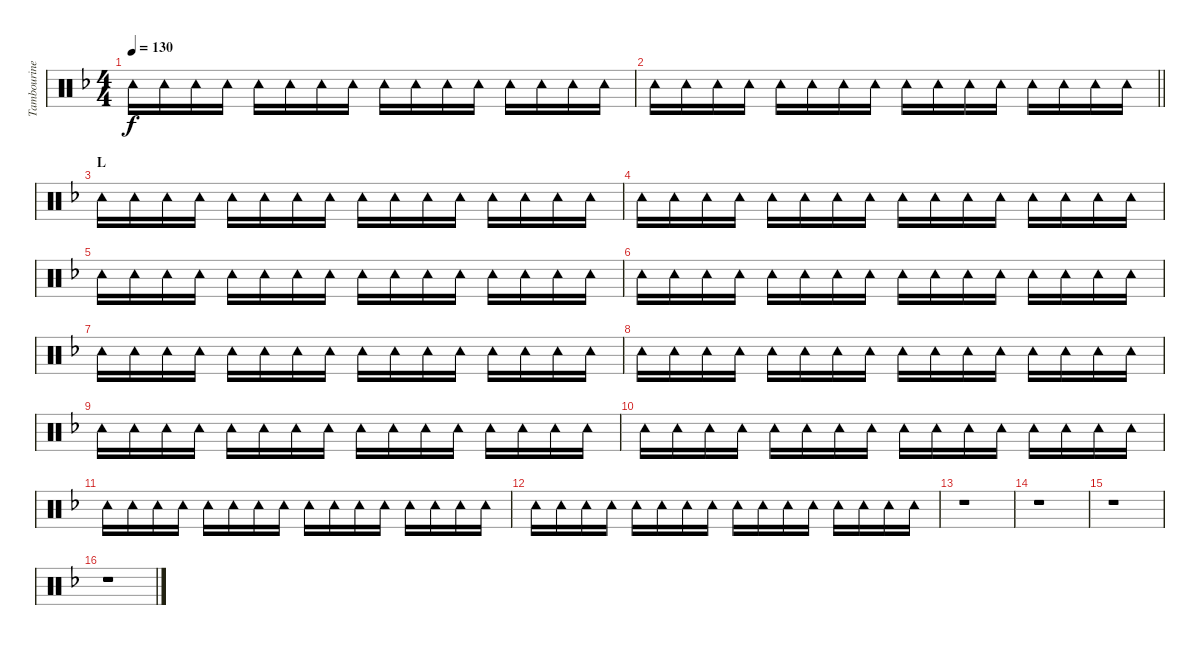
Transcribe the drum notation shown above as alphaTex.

\track ("Tambourine" "Tambourine") {instrument percussion}
\staff {score}
\articulation defaults
\ts (4 4)
\tempo 130
\clef neutral
\ks f "Tambourine (hit)".16{dy f} "Tambourine (hit)".16 "Tambourine (hit)".16 "Tambourine (hit)".16 "Tambourine (hit)".16 "Tambourine (hit)".16 "Tambourine (hit)".16 "Tambourine (hit)".16 "Tambourine (hit)".16 "Tambourine (hit)".16 "Tambourine (hit)".16 "Tambourine (hit)".16 "Tambourine (hit)".16 "Tambourine (hit)".16 "Tambourine (hit)".16 "Tambourine (hit)".16
|
\barLineRight lightlight "Tambourine (hit)".16 "Tambourine (hit)".16 "Tambourine (hit)".16 "Tambourine (hit)".16 "Tambourine (hit)".16 "Tambourine (hit)".16 "Tambourine (hit)".16 "Tambourine (hit)".16 "Tambourine (hit)".16 "Tambourine (hit)".16 "Tambourine (hit)".16 "Tambourine (hit)".16 "Tambourine (hit)".16 "Tambourine (hit)".16 "Tambourine (hit)".16 "Tambourine (hit)".16
|
\section ("" "L")
"Tambourine (hit)".16 "Tambourine (hit)".16 "Tambourine (hit)".16 "Tambourine (hit)".16 "Tambourine (hit)".16 "Tambourine (hit)".16 "Tambourine (hit)".16 "Tambourine (hit)".16 "Tambourine (hit)".16 "Tambourine (hit)".16 "Tambourine (hit)".16 "Tambourine (hit)".16 "Tambourine (hit)".16 "Tambourine (hit)".16 "Tambourine (hit)".16 "Tambourine (hit)".16 |
"Tambourine (hit)".16 "Tambourine (hit)".16 "Tambourine (hit)".16 "Tambourine (hit)".16 "Tambourine (hit)".16 "Tambourine (hit)".16 "Tambourine (hit)".16 "Tambourine (hit)".16 "Tambourine (hit)".16 "Tambourine (hit)".16 "Tambourine (hit)".16 "Tambourine (hit)".16 "Tambourine (hit)".16 "Tambourine (hit)".16 "Tambourine (hit)".16 "Tambourine (hit)".16 |
"Tambourine (hit)".16 "Tambourine (hit)".16 "Tambourine (hit)".16 "Tambourine (hit)".16 "Tambourine (hit)".16 "Tambourine (hit)".16 "Tambourine (hit)".16 "Tambourine (hit)".16 "Tambourine (hit)".16 "Tambourine (hit)".16 "Tambourine (hit)".16 "Tambourine (hit)".16 "Tambourine (hit)".16 "Tambourine (hit)".16 "Tambourine (hit)".16 "Tambourine (hit)".16 |
"Tambourine (hit)".16 "Tambourine (hit)".16 "Tambourine (hit)".16 "Tambourine (hit)".16 "Tambourine (hit)".16 "Tambourine (hit)".16 "Tambourine (hit)".16 "Tambourine (hit)".16 "Tambourine (hit)".16 "Tambourine (hit)".16 "Tambourine (hit)".16 "Tambourine (hit)".16 "Tambourine (hit)".16 "Tambourine (hit)".16 "Tambourine (hit)".16 "Tambourine (hit)".16 |
"Tambourine (hit)".16 "Tambourine (hit)".16 "Tambourine (hit)".16 "Tambourine (hit)".16 "Tambourine (hit)".16 "Tambourine (hit)".16 "Tambourine (hit)".16 "Tambourine (hit)".16 "Tambourine (hit)".16 "Tambourine (hit)".16 "Tambourine (hit)".16 "Tambourine (hit)".16 "Tambourine (hit)".16 "Tambourine (hit)".16 "Tambourine (hit)".16 "Tambourine (hit)".16 |
"Tambourine (hit)".16 "Tambourine (hit)".16 "Tambourine (hit)".16 "Tambourine (hit)".16 "Tambourine (hit)".16 "Tambourine (hit)".16 "Tambourine (hit)".16 "Tambourine (hit)".16 "Tambourine (hit)".16 "Tambourine (hit)".16 "Tambourine (hit)".16 "Tambourine (hit)".16 "Tambourine (hit)".16 "Tambourine (hit)".16 "Tambourine (hit)".16 "Tambourine (hit)".16 |
"Tambourine (hit)".16 "Tambourine (hit)".16 "Tambourine (hit)".16 "Tambourine (hit)".16 "Tambourine (hit)".16 "Tambourine (hit)".16 "Tambourine (hit)".16 "Tambourine (hit)".16 "Tambourine (hit)".16 "Tambourine (hit)".16 "Tambourine (hit)".16 "Tambourine (hit)".16 "Tambourine (hit)".16 "Tambourine (hit)".16 "Tambourine (hit)".16 "Tambourine (hit)".16 |
"Tambourine (hit)".16 "Tambourine (hit)".16 "Tambourine (hit)".16 "Tambourine (hit)".16 "Tambourine (hit)".16 "Tambourine (hit)".16 "Tambourine (hit)".16 "Tambourine (hit)".16 "Tambourine (hit)".16 "Tambourine (hit)".16 "Tambourine (hit)".16 "Tambourine (hit)".16 "Tambourine (hit)".16 "Tambourine (hit)".16 "Tambourine (hit)".16 "Tambourine (hit)".16 |
"Tambourine (hit)".16 "Tambourine (hit)".16 "Tambourine (hit)".16 "Tambourine (hit)".16 "Tambourine (hit)".16 "Tambourine (hit)".16 "Tambourine (hit)".16 "Tambourine (hit)".16 "Tambourine (hit)".16 "Tambourine (hit)".16 "Tambourine (hit)".16 "Tambourine (hit)".16 "Tambourine (hit)".16 "Tambourine (hit)".16 "Tambourine (hit)".16 "Tambourine (hit)".16 |
"Tambourine (hit)".16 "Tambourine (hit)".16 "Tambourine (hit)".16 "Tambourine (hit)".16 "Tambourine (hit)".16 "Tambourine (hit)".16 "Tambourine (hit)".16 "Tambourine (hit)".16 "Tambourine (hit)".16 "Tambourine (hit)".16 "Tambourine (hit)".16 "Tambourine (hit)".16 "Tambourine (hit)".16 "Tambourine (hit)".16 "Tambourine (hit)".16 "Tambourine (hit)".16 |
r.1 |
r.1 |
r.1 |
r.1
